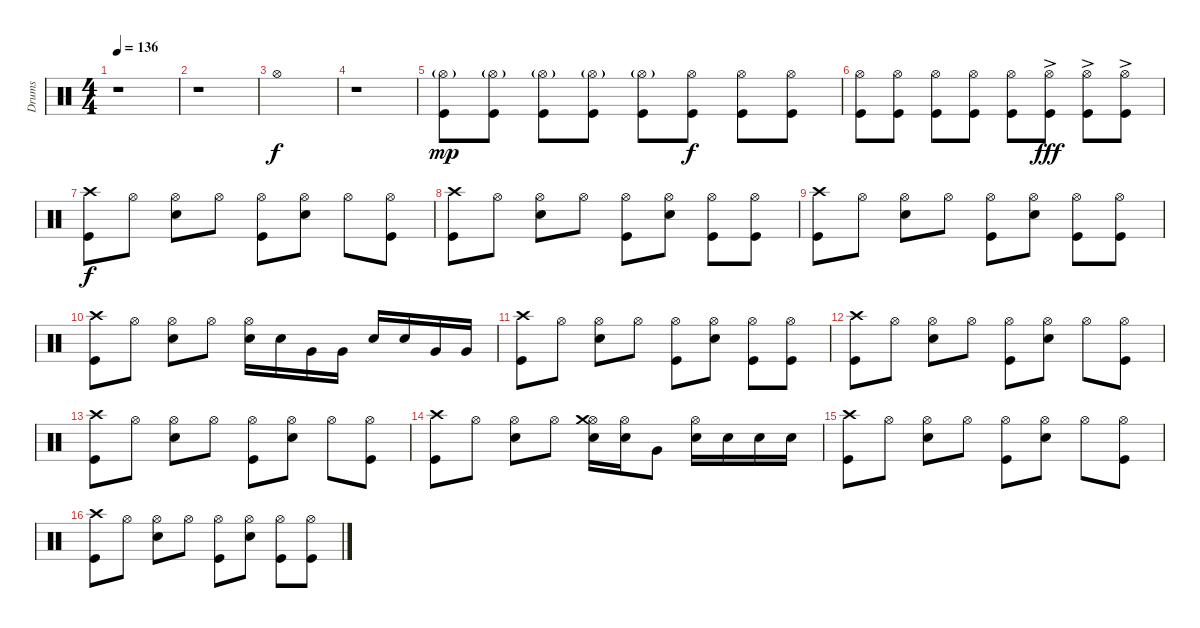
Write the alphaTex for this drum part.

\track ("Drums" "Drums") {instrument percussion}
\staff {score}
\articulation defaults
\ts (4 4)
\tempo 136
\clef neutral
\ks c
r.1{dy f} |
r.1 |
"Hi-Hat (open)".1 |
r.1 |
("Hi-Hat (open)"{g} "Kick (hit)").8{dy mp} ("Hi-Hat (open)"{g} "Kick (hit)").8 ("Hi-Hat (open)"{g} "Kick (hit)").8 ("Hi-Hat (open)"{g} "Kick (hit)").8 ("Hi-Hat (open)"{g} "Kick (hit)").8 ("Hi-Hat (open)" "Kick (hit)").8{dy f} ("Hi-Hat (open)" "Kick (hit)").8 ("Hi-Hat (open)" "Kick (hit)").8 |
("Hi-Hat (open)" "Kick (hit)").8 ("Hi-Hat (open)" "Kick (hit)").8 ("Hi-Hat (open)" "Kick (hit)").8 ("Hi-Hat (open)" "Kick (hit)").8 ("Hi-Hat (open)" "Kick (hit)").8 ("Hi-Hat (open)"{ac} "Kick (hit)").8{dy fff} ("Hi-Hat (open)"{ac} "Kick (hit)").8 ("Hi-Hat (open)"{ac} "Kick (hit)").8 |
("Crash high (hit)" "Kick (hit)").8{dy f} "Hi-Hat (open)".8 ("Hi-Hat (open)" "Electric Snare (hit)").8 "Hi-Hat (open)".8 ("Hi-Hat (open)" "Kick (hit)").8 ("Hi-Hat (open)" "Electric Snare (hit)").8 "Hi-Hat (open)".8 ("Hi-Hat (open)" "Kick (hit)").8 |
("Crash high (hit)" "Kick (hit)").8 "Hi-Hat (open)".8 ("Hi-Hat (open)" "Electric Snare (hit)").8 "Hi-Hat (open)".8 ("Hi-Hat (open)" "Kick (hit)").8 ("Hi-Hat (open)" "Electric Snare (hit)").8 ("Hi-Hat (open)" "Kick (hit)").8 ("Hi-Hat (open)" "Kick (hit)").8 |
("Crash high (hit)" "Kick (hit)").8 "Hi-Hat (open)".8 ("Hi-Hat (open)" "Electric Snare (hit)").8 "Hi-Hat (open)".8 ("Hi-Hat (open)" "Kick (hit)").8 ("Hi-Hat (open)" "Electric Snare (hit)").8 ("Hi-Hat (open)" "Kick (hit)").8 ("Hi-Hat (open)" "Kick (hit)").8 |
("Crash high (hit)" "Kick (hit)").8 "Hi-Hat (open)".8 ("Hi-Hat (open)" "Electric Snare (hit)").8 "Hi-Hat (open)".8 ("Hi-Hat (open)" "Electric Snare (hit)").16 "Electric Snare (hit)".16 "Very Low Tom (hit)".16 "Very Low Tom (hit)".16 "Electric Snare (hit)".16 "Electric Snare (hit)".16 "Very Low Tom (hit)".16 "Very Low Tom (hit)".16 |
("Crash high (hit)" "Kick (hit)").8 "Hi-Hat (open)".8 ("Hi-Hat (open)" "Electric Snare (hit)").8 "Hi-Hat (open)".8 ("Hi-Hat (open)" "Kick (hit)").8 ("Hi-Hat (open)" "Electric Snare (hit)").8 ("Hi-Hat (open)" "Kick (hit)").8 ("Hi-Hat (open)" "Kick (hit)").8 |
("Crash high (hit)" "Kick (hit)").8 "Hi-Hat (open)".8 ("Hi-Hat (open)" "Electric Snare (hit)").8 "Hi-Hat (open)".8 ("Hi-Hat (open)" "Kick (hit)").8 ("Hi-Hat (open)" "Electric Snare (hit)").8 "Hi-Hat (open)".8 ("Hi-Hat (open)" "Kick (hit)").8 |
("Crash high (hit)" "Kick (hit)").8 "Hi-Hat (open)".8 ("Hi-Hat (open)" "Electric Snare (hit)").8 "Hi-Hat (open)".8 ("Hi-Hat (open)" "Kick (hit)").8 ("Hi-Hat (open)" "Electric Snare (hit)").8 "Hi-Hat (open)".8 ("Hi-Hat (open)" "Kick (hit)").8 |
("Crash high (hit)" "Kick (hit)").8 "Hi-Hat (open)".8 ("Hi-Hat (open)" "Electric Snare (hit)").8 "Hi-Hat (open)".8 ("Hi-Hat (open)" "Electric Snare (hit)" "Crash medium (hit)").16 ("Hi-Hat (open)" "Electric Snare (hit)").16 "Very Low Tom (hit)".8 ("Hi-Hat (open)" "Electric Snare (hit)").16 "Electric Snare (hit)".16 "Electric Snare (hit)".16 "Electric Snare (hit)".16 |
("Crash high (hit)" "Kick (hit)").8 "Hi-Hat (open)".8 ("Hi-Hat (open)" "Electric Snare (hit)").8 "Hi-Hat (open)".8 ("Hi-Hat (open)" "Kick (hit)").8 ("Hi-Hat (open)" "Electric Snare (hit)").8 "Hi-Hat (open)".8 ("Hi-Hat (open)" "Kick (hit)").8 |
("Crash high (hit)" "Kick (hit)").8 "Hi-Hat (open)".8 ("Hi-Hat (open)" "Electric Snare (hit)").8 "Hi-Hat (open)".8 ("Hi-Hat (open)" "Kick (hit)").8 ("Hi-Hat (open)" "Electric Snare (hit)").8 ("Hi-Hat (open)" "Kick (hit)").8 ("Hi-Hat (open)" "Kick (hit)").8
